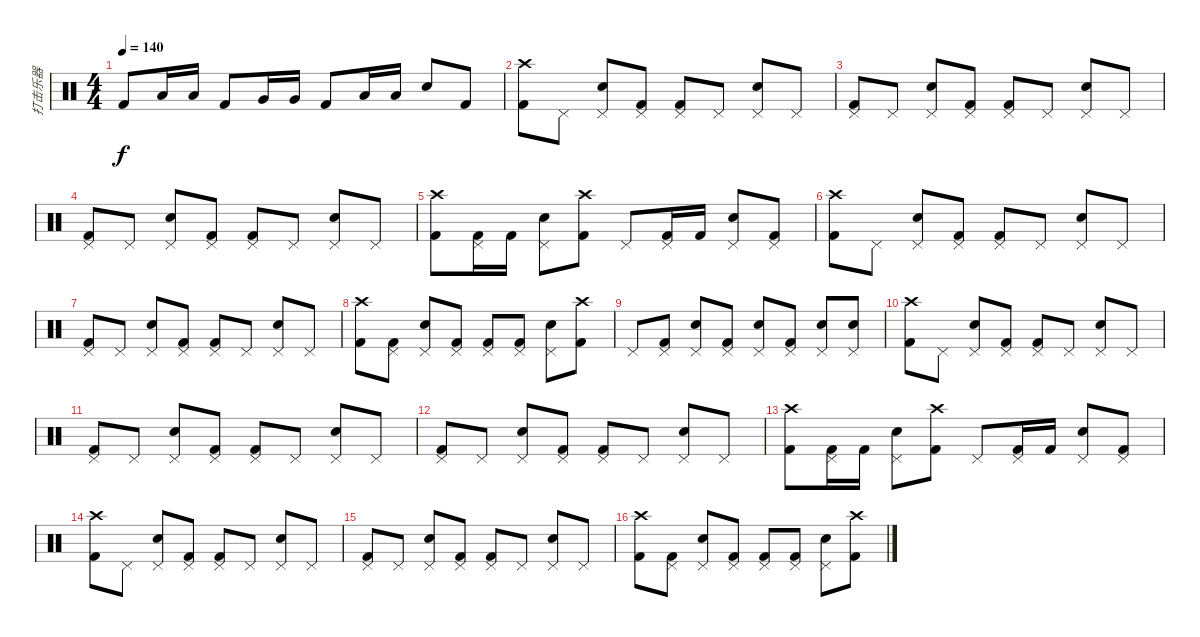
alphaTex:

\track ("打击乐器" "打击乐器") {instrument percussion}
\staff {score}
\articulation defaults
\ts (4 4)
\tempo 140
\clef neutral
\ks c "Kick (hit) 2".8{dy f} "Low Tom (hit)".16 "Low Tom (hit)".16 "Kick (hit) 2".8 "Very Low Tom (hit)".16 "Very Low Tom (hit)".16 "Kick (hit) 2".8 "Low Floor Tom (hit)".16 "Low Floor Tom (hit)".16 "Electric Snare (hit)".8 "Kick (hit) 2".8
|
("Crash high (hit)" "Kick (hit) 2").8 "Pedal Hi-Hat (hit)".8 ("Pedal Hi-Hat (hit)" "Electric Snare (hit)").8 ("Pedal Hi-Hat (hit)" "Kick (hit) 2").8 ("Pedal Hi-Hat (hit)" "Kick (hit) 2").8 "Pedal Hi-Hat (hit)".8 ("Pedal Hi-Hat (hit)" "Electric Snare (hit)").8 "Pedal Hi-Hat (hit)".8 |
("Pedal Hi-Hat (hit)" "Kick (hit) 2").8 "Pedal Hi-Hat (hit)".8 ("Pedal Hi-Hat (hit)" "Electric Snare (hit)").8 ("Pedal Hi-Hat (hit)" "Kick (hit) 2").8 ("Pedal Hi-Hat (hit)" "Kick (hit) 2").8 "Pedal Hi-Hat (hit)".8 ("Pedal Hi-Hat (hit)" "Electric Snare (hit)").8 "Pedal Hi-Hat (hit)".8 |
("Pedal Hi-Hat (hit)" "Kick (hit) 2").8 "Pedal Hi-Hat (hit)".8 ("Pedal Hi-Hat (hit)" "Electric Snare (hit)").8 ("Pedal Hi-Hat (hit)" "Kick (hit) 2").8 ("Pedal Hi-Hat (hit)" "Kick (hit) 2").8 "Pedal Hi-Hat (hit)".8 ("Pedal Hi-Hat (hit)" "Electric Snare (hit)").8 "Pedal Hi-Hat (hit)".8 |
("Crash high (hit)" "Kick (hit) 2").8 ("Pedal Hi-Hat (hit)" "Kick (hit) 2").16 "Kick (hit) 2".16 ("Pedal Hi-Hat (hit)" "Electric Snare (hit)").8 ("Crash high (hit)" "Kick (hit) 2").8 "Pedal Hi-Hat (hit)".8 ("Pedal Hi-Hat (hit)" "Kick (hit) 2").16 "Kick (hit) 2".16 ("Pedal Hi-Hat (hit)" "Electric Snare (hit)").8 ("Pedal Hi-Hat (hit)" "Kick (hit) 2").8 |
("Crash high (hit)" "Kick (hit) 2").8 "Pedal Hi-Hat (hit)".8 ("Pedal Hi-Hat (hit)" "Electric Snare (hit)").8 ("Pedal Hi-Hat (hit)" "Kick (hit) 2").8 ("Pedal Hi-Hat (hit)" "Kick (hit) 2").8 "Pedal Hi-Hat (hit)".8 ("Pedal Hi-Hat (hit)" "Electric Snare (hit)").8 "Pedal Hi-Hat (hit)".8 |
("Pedal Hi-Hat (hit)" "Kick (hit) 2").8 "Pedal Hi-Hat (hit)".8 ("Pedal Hi-Hat (hit)" "Electric Snare (hit)").8 ("Pedal Hi-Hat (hit)" "Kick (hit) 2").8 ("Pedal Hi-Hat (hit)" "Kick (hit) 2").8 "Pedal Hi-Hat (hit)".8 ("Pedal Hi-Hat (hit)" "Electric Snare (hit)").8 "Pedal Hi-Hat (hit)".8 |
("Crash high (hit)" "Kick (hit) 2").8 ("Pedal Hi-Hat (hit)" "Kick (hit) 2").8 ("Pedal Hi-Hat (hit)" "Electric Snare (hit)").8 ("Pedal Hi-Hat (hit)" "Kick (hit) 2").8 ("Pedal Hi-Hat (hit)" "Kick (hit) 2").8 ("Pedal Hi-Hat (hit)" "Kick (hit) 2").8 ("Pedal Hi-Hat (hit)" "Electric Snare (hit)").8 ("Crash high (hit)" "Kick (hit) 2").8 |
"Pedal Hi-Hat (hit)".8 ("Pedal Hi-Hat (hit)" "Kick (hit) 2").8 ("Pedal Hi-Hat (hit)" "Electric Snare (hit)").8 ("Pedal Hi-Hat (hit)" "Kick (hit) 2").8 ("Pedal Hi-Hat (hit)" "Electric Snare (hit)").8 ("Pedal Hi-Hat (hit)" "Kick (hit) 2").8 ("Pedal Hi-Hat (hit)" "Electric Snare (hit)").8 ("Pedal Hi-Hat (hit)" "Electric Snare (hit)").8 |
("Crash high (hit)" "Kick (hit) 2").8 "Pedal Hi-Hat (hit)".8 ("Pedal Hi-Hat (hit)" "Electric Snare (hit)").8 ("Pedal Hi-Hat (hit)" "Kick (hit) 2").8 ("Pedal Hi-Hat (hit)" "Kick (hit) 2").8 "Pedal Hi-Hat (hit)".8 ("Pedal Hi-Hat (hit)" "Electric Snare (hit)").8 "Pedal Hi-Hat (hit)".8 |
("Pedal Hi-Hat (hit)" "Kick (hit) 2").8 "Pedal Hi-Hat (hit)".8 ("Pedal Hi-Hat (hit)" "Electric Snare (hit)").8 ("Pedal Hi-Hat (hit)" "Kick (hit) 2").8 ("Pedal Hi-Hat (hit)" "Kick (hit) 2").8 "Pedal Hi-Hat (hit)".8 ("Pedal Hi-Hat (hit)" "Electric Snare (hit)").8 "Pedal Hi-Hat (hit)".8 |
("Pedal Hi-Hat (hit)" "Kick (hit) 2").8 "Pedal Hi-Hat (hit)".8 ("Pedal Hi-Hat (hit)" "Electric Snare (hit)").8 ("Pedal Hi-Hat (hit)" "Kick (hit) 2").8 ("Pedal Hi-Hat (hit)" "Kick (hit) 2").8 "Pedal Hi-Hat (hit)".8 ("Pedal Hi-Hat (hit)" "Electric Snare (hit)").8 "Pedal Hi-Hat (hit)".8 |
("Crash high (hit)" "Kick (hit) 2").8 ("Pedal Hi-Hat (hit)" "Kick (hit) 2").16 "Kick (hit) 2".16 ("Pedal Hi-Hat (hit)" "Electric Snare (hit)").8 ("Crash high (hit)" "Kick (hit) 2").8 "Pedal Hi-Hat (hit)".8 ("Pedal Hi-Hat (hit)" "Kick (hit) 2").16 "Kick (hit) 2".16 ("Pedal Hi-Hat (hit)" "Electric Snare (hit)").8 ("Pedal Hi-Hat (hit)" "Kick (hit) 2").8 |
("Crash high (hit)" "Kick (hit) 2").8 "Pedal Hi-Hat (hit)".8 ("Pedal Hi-Hat (hit)" "Electric Snare (hit)").8 ("Pedal Hi-Hat (hit)" "Kick (hit) 2").8 ("Pedal Hi-Hat (hit)" "Kick (hit) 2").8 "Pedal Hi-Hat (hit)".8 ("Pedal Hi-Hat (hit)" "Electric Snare (hit)").8 "Pedal Hi-Hat (hit)".8 |
("Pedal Hi-Hat (hit)" "Kick (hit) 2").8 "Pedal Hi-Hat (hit)".8 ("Pedal Hi-Hat (hit)" "Electric Snare (hit)").8 ("Pedal Hi-Hat (hit)" "Kick (hit) 2").8 ("Pedal Hi-Hat (hit)" "Kick (hit) 2").8 "Pedal Hi-Hat (hit)".8 ("Pedal Hi-Hat (hit)" "Electric Snare (hit)").8 "Pedal Hi-Hat (hit)".8 |
("Crash high (hit)" "Kick (hit) 2").8 ("Pedal Hi-Hat (hit)" "Kick (hit) 2").8 ("Pedal Hi-Hat (hit)" "Electric Snare (hit)").8 ("Pedal Hi-Hat (hit)" "Kick (hit) 2").8 ("Pedal Hi-Hat (hit)" "Kick (hit) 2").8 ("Pedal Hi-Hat (hit)" "Kick (hit) 2").8 ("Pedal Hi-Hat (hit)" "Electric Snare (hit)").8 ("Crash high (hit)" "Kick (hit) 2").8
